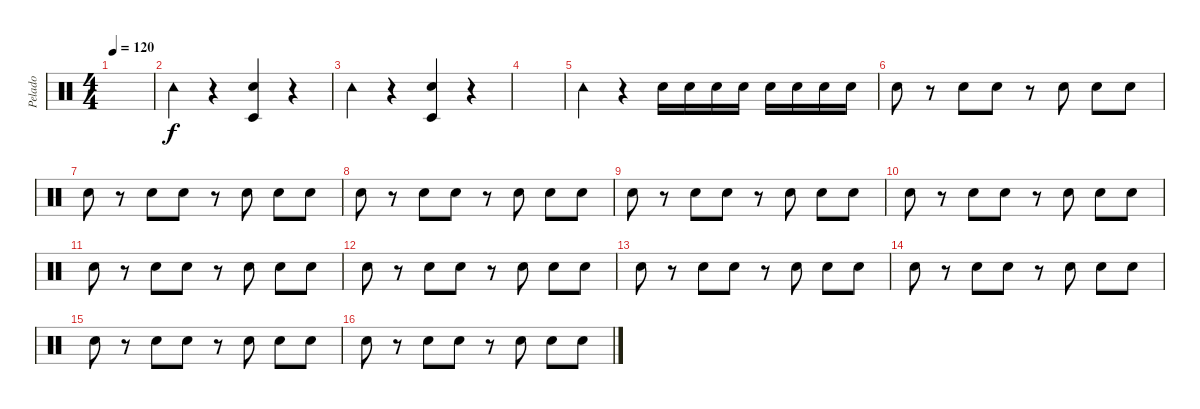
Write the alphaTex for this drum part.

\track ("Pelado" "Pelado") {instrument percussion}
\staff {score}
\articulation defaults
\ts (4 4)
\tempo 120
\clef neutral
\ks c
|
"Tambourine (hit)".4 r.4 ("Electric Snare (hit)" "Timbale low (hit)").4 r.4 |
"Tambourine (hit)".4 r.4 ("Electric Snare (hit)" "Timbale low (hit)").4 r.4 |
|
"Tambourine (hit)".4 r.4 "Electric Snare (hit)".16 "Electric Snare (hit)".16 "Electric Snare (hit)".16 "Electric Snare (hit)".16 "Electric Snare (hit)".16 "Electric Snare (hit)".16 "Electric Snare (hit)".16 "Electric Snare (hit)".16 |
"Snare (hit) 2".8 r.8 "Electric Snare (hit)".8 "Electric Snare (hit)".8 r.8 "Snare (hit) 2".8 "Electric Snare (hit)".8 "Electric Snare (hit)".8 |
"Snare (hit) 2".8 r.8 "Electric Snare (hit)".8 "Electric Snare (hit)".8 r.8 "Snare (hit) 2".8 "Electric Snare (hit)".8 "Electric Snare (hit)".8 |
"Snare (hit) 2".8 r.8 "Electric Snare (hit)".8 "Electric Snare (hit)".8 r.8 "Snare (hit) 2".8 "Electric Snare (hit)".8 "Electric Snare (hit)".8 |
"Snare (hit) 2".8 r.8 "Electric Snare (hit)".8 "Electric Snare (hit)".8 r.8 "Snare (hit) 2".8 "Electric Snare (hit)".8 "Electric Snare (hit)".8 |
"Snare (hit) 2".8 r.8 "Electric Snare (hit)".8 "Electric Snare (hit)".8 r.8 "Snare (hit) 2".8 "Electric Snare (hit)".8 "Electric Snare (hit)".8 |
"Snare (hit) 2".8 r.8 "Electric Snare (hit)".8 "Electric Snare (hit)".8 r.8 "Snare (hit) 2".8 "Electric Snare (hit)".8 "Electric Snare (hit)".8 |
"Snare (hit) 2".8 r.8 "Electric Snare (hit)".8 "Electric Snare (hit)".8 r.8 "Snare (hit) 2".8 "Electric Snare (hit)".8 "Electric Snare (hit)".8 |
"Snare (hit) 2".8 r.8 "Electric Snare (hit)".8 "Electric Snare (hit)".8 r.8 "Snare (hit) 2".8 "Electric Snare (hit)".8 "Electric Snare (hit)".8 |
"Snare (hit) 2".8 r.8 "Electric Snare (hit)".8 "Electric Snare (hit)".8 r.8 "Snare (hit) 2".8 "Electric Snare (hit)".8 "Electric Snare (hit)".8 |
"Snare (hit) 2".8 r.8 "Electric Snare (hit)".8 "Electric Snare (hit)".8 r.8 "Snare (hit) 2".8 "Electric Snare (hit)".8 "Electric Snare (hit)".8 |
"Snare (hit) 2".8 r.8 "Electric Snare (hit)".8 "Electric Snare (hit)".8 r.8 "Snare (hit) 2".8 "Electric Snare (hit)".8 "Electric Snare (hit)".8
